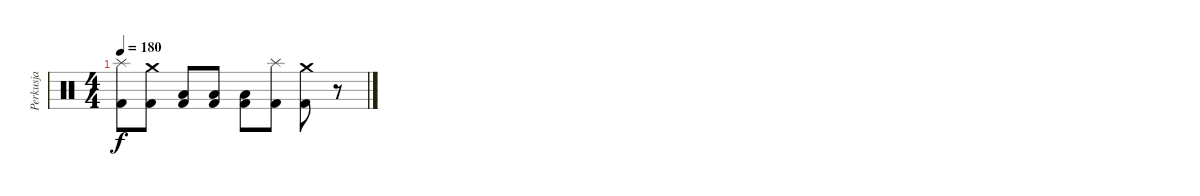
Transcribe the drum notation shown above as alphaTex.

\track ("Perkusja" "Perkusja") {instrument percussion}
\staff {score}
\articulation defaults
\ts (4 4)
\tempo 180
\clef neutral
\ks c
("Splash (hit)" "Kick (hit) 2").8{dy f} ("Crash medium (hit)" "Kick (hit) 2").8 ("Low Floor Tom (hit)" "Kick (hit) 2").8 ("Low Floor Tom (hit)" "Kick (hit) 2").8 ("Low Floor Tom (hit)" "Kick (hit) 2").8 ("Splash (hit)" "Kick (hit) 2").8 ("Crash medium (hit)" "Kick (hit) 2").8 r.8
